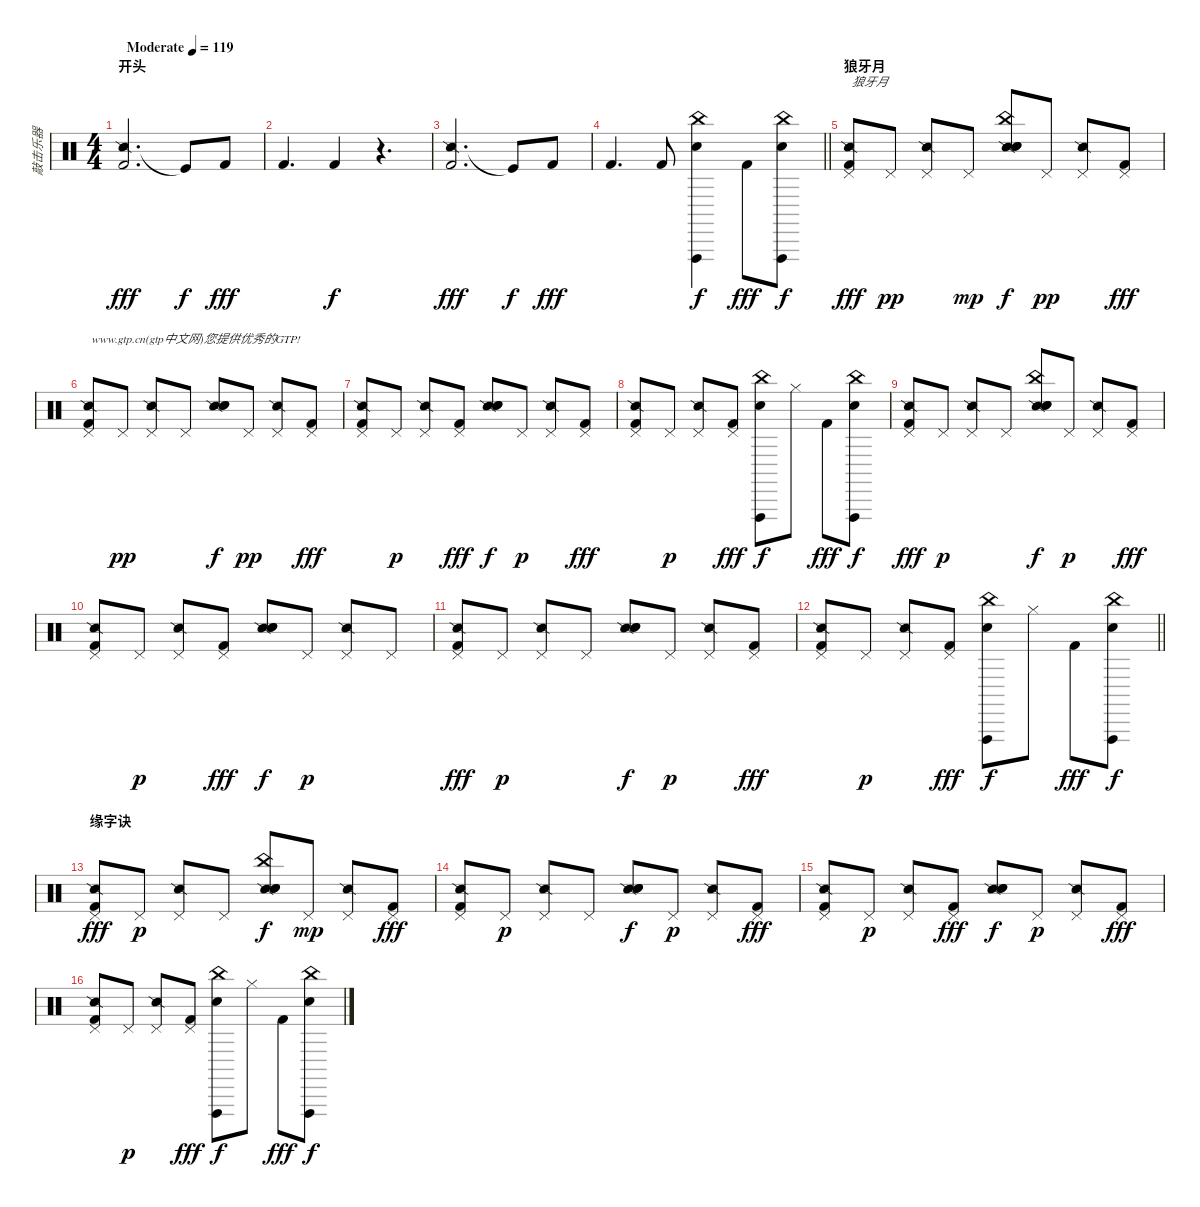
\track ("敲击乐器" "敲击乐器") {instrument percussion}
\staff {score}
\articulation defaults
\ts (4 4)
\section ("" "开头")
\tempo (119 "Moderate")
\clef neutral
\ks c
("Snare (side stick) 2" "Kick (hit) 2").2{d dy fff} "Kick (hit)"{t}.8{dy f} "Kick (hit) 2".8{dy fff} |
"Kick (hit) 2".4{d} "Kick (hit) 2".4{dy f} r.4{d} |
("Snare (side stick) 2" "Kick (hit) 2").2{d dy fff} "Kick (hit)"{t}.8{dy f} "Kick (hit) 2".8{dy fff} |
\barLineRight lightlight "Kick (hit) 2".4{d} "Kick (hit) 2".8
("China (hit)" "Vibraslap (hit)" "Hand Clap (hit)").4{dy f} "Kick (hit) 2".8{dy fff} ("China (hit)" "Vibraslap (hit)" "Hand Clap (hit)").8{dy f} |
\section ("" "狼牙月")
("Snare (side stick) 2" "Pedal Hi-Hat (hit)" "Kick (hit) 2").8{txt "狼牙月" dy fff} "Pedal Hi-Hat (hit)".8{dy pp} ("Snare (side stick) 2" "Pedal Hi-Hat (hit)").8 "Pedal Hi-Hat (hit)".8{dy mp} ("Snare (side stick) 2" "Snare (hit) 2" "Hand Clap (hit)" "China (hit)").8{dy f} "Pedal Hi-Hat (hit)".8{dy pp} ("Snare (side stick) 2" "Pedal Hi-Hat (hit)").8 ("Pedal Hi-Hat (hit)" "Kick (hit) 2").8{dy fff} |
("Snare (side stick) 2" "Pedal Hi-Hat (hit)" "Kick (hit) 2").8{txt "www.gtp.cn(gtp中文网)您提供优秀的GTP!"} "Pedal Hi-Hat (hit)".8{dy pp} ("Snare (side stick) 2" "Pedal Hi-Hat (hit)").8 "Pedal Hi-Hat (hit)".8 ("Snare (side stick) 2" "Snare (hit) 2" "Hand Clap (hit)").8{dy f} "Pedal Hi-Hat (hit)".8{dy pp} ("Snare (side stick) 2" "Pedal Hi-Hat (hit)").8 ("Pedal Hi-Hat (hit)" "Kick (hit) 2").8{dy fff} |
("Snare (side stick) 2" "Pedal Hi-Hat (hit)" "Kick (hit) 2").8 "Pedal Hi-Hat (hit)".8{dy p} ("Snare (side stick) 2" "Pedal Hi-Hat (hit)").8 ("Pedal Hi-Hat (hit)" "Kick (hit) 2").8{dy fff} ("Snare (side stick) 2" "Snare (hit) 2" "Hand Clap (hit)").8{dy f} "Pedal Hi-Hat (hit)".8{dy p} ("Snare (side stick) 2" "Pedal Hi-Hat (hit)").8 ("Pedal Hi-Hat (hit)" "Kick (hit) 2").8{dy fff} |
("Snare (side stick) 2" "Pedal Hi-Hat (hit)" "Kick (hit) 2").8 "Pedal Hi-Hat (hit)".8{dy p} ("Snare (side stick) 2" "Pedal Hi-Hat (hit)").8 ("Pedal Hi-Hat (hit)" "Kick (hit) 2").8{dy fff} ("China (hit)" "Vibraslap (hit)" "Hand Clap (hit)").8{dy f} "Hi-Hat (closed)".8 "Kick (hit) 2".8{dy fff} ("China (hit)" "Vibraslap (hit)" "Hand Clap (hit)").8{dy f} |
("Snare (side stick) 2" "Pedal Hi-Hat (hit)" "Kick (hit) 2").8{dy fff} "Pedal Hi-Hat (hit)".8{dy p} ("Snare (side stick) 2" "Pedal Hi-Hat (hit)").8 "Pedal Hi-Hat (hit)".8 ("Snare (side stick) 2" "Snare (hit) 2" "Hand Clap (hit)" "China (hit)").8{dy f} "Pedal Hi-Hat (hit)".8{dy p} ("Snare (side stick) 2" "Pedal Hi-Hat (hit)").8 ("Pedal Hi-Hat (hit)" "Kick (hit) 2").8{dy fff} |
("Snare (side stick) 2" "Pedal Hi-Hat (hit)" "Kick (hit) 2").8 "Pedal Hi-Hat (hit)".8{dy p} ("Snare (side stick) 2" "Pedal Hi-Hat (hit)").8 ("Pedal Hi-Hat (hit)" "Kick (hit) 2").8{dy fff} ("Snare (side stick) 2" "Snare (hit) 2" "Hand Clap (hit)").8{dy f} "Pedal Hi-Hat (hit)".8{dy p} ("Snare (side stick) 2" "Pedal Hi-Hat (hit)").8 "Pedal Hi-Hat (hit)".8 |
("Snare (side stick) 2" "Pedal Hi-Hat (hit)" "Kick (hit) 2").8{dy fff} "Pedal Hi-Hat (hit)".8{dy p} ("Snare (side stick) 2" "Pedal Hi-Hat (hit)").8 "Pedal Hi-Hat (hit)".8 ("Snare (side stick) 2" "Snare (hit) 2" "Hand Clap (hit)").8{dy f} "Pedal Hi-Hat (hit)".8{dy p} ("Snare (side stick) 2" "Pedal Hi-Hat (hit)").8 ("Pedal Hi-Hat (hit)" "Kick (hit) 2").8{dy fff} |
\barLineRight lightlight
("Snare (side stick) 2" "Pedal Hi-Hat (hit)" "Kick (hit) 2").8 "Pedal Hi-Hat (hit)".8{dy p} ("Snare (side stick) 2" "Pedal Hi-Hat (hit)").8 ("Pedal Hi-Hat (hit)" "Kick (hit) 2").8{dy fff} ("China (hit)" "Vibraslap (hit)" "Hand Clap (hit)").8{dy f} "Hi-Hat (closed)".8 "Kick (hit) 2".8{dy fff} ("China (hit)" "Vibraslap (hit)" "Hand Clap (hit)").8{dy f} |
\section ("" "缘字诀")
("Snare (side stick) 2" "Pedal Hi-Hat (hit)" "Kick (hit) 2").8{dy fff} "Pedal Hi-Hat (hit)".8{dy p} ("Snare (side stick) 2" "Pedal Hi-Hat (hit)").8 "Pedal Hi-Hat (hit)".8 ("Snare (side stick) 2" "Snare (hit) 2" "Hand Clap (hit)" "China (hit)").8{dy f} "Pedal Hi-Hat (hit)".8{dy mp} ("Snare (side stick) 2" "Pedal Hi-Hat (hit)").8 ("Pedal Hi-Hat (hit)" "Kick (hit) 2").8{dy fff} |
("Snare (side stick) 2" "Pedal Hi-Hat (hit)" "Kick (hit) 2").8 "Pedal Hi-Hat (hit)".8{dy p} ("Snare (side stick) 2" "Pedal Hi-Hat (hit)").8 "Pedal Hi-Hat (hit)".8 ("Snare (side stick) 2" "Snare (hit) 2" "Hand Clap (hit)").8{dy f} "Pedal Hi-Hat (hit)".8{dy p} ("Snare (side stick) 2" "Pedal Hi-Hat (hit)").8 ("Pedal Hi-Hat (hit)" "Kick (hit) 2").8{dy fff} |
("Snare (side stick) 2" "Pedal Hi-Hat (hit)" "Kick (hit) 2").8 "Pedal Hi-Hat (hit)".8{dy p} ("Snare (side stick) 2" "Pedal Hi-Hat (hit)").8 ("Pedal Hi-Hat (hit)" "Kick (hit) 2").8{dy fff} ("Snare (side stick) 2" "Snare (hit) 2" "Hand Clap (hit)").8{dy f} "Pedal Hi-Hat (hit)".8{dy p} ("Snare (side stick) 2" "Pedal Hi-Hat (hit)").8 ("Pedal Hi-Hat (hit)" "Kick (hit) 2").8{dy fff} |
("Snare (side stick) 2" "Pedal Hi-Hat (hit)" "Kick (hit) 2").8 "Pedal Hi-Hat (hit)".8{dy p} ("Snare (side stick) 2" "Pedal Hi-Hat (hit)").8 ("Pedal Hi-Hat (hit)" "Kick (hit) 2").8{dy fff} ("China (hit)" "Vibraslap (hit)" "Hand Clap (hit)").8{dy f} "Hi-Hat (closed)".8 "Kick (hit) 2".8{dy fff} ("China (hit)" "Vibraslap (hit)" "Hand Clap (hit)").8{dy f}
